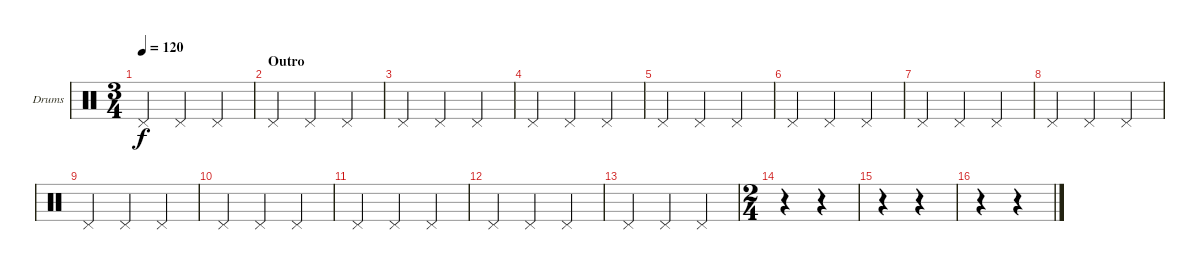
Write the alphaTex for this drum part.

\bracketExtendMode groupsimilarinstruments
\firstSystemTrackNameOrientation horizontal
\otherSystemsTrackNameOrientation horizontal
\track ("Drumkit" "Drums") {instrument percussion}
\staff {score}
\articulation defaults
\ts (3 4)
\tempo 120
\clef neutral
\ks c "Pedal Hi-Hat (hit)".4{dy f} "Pedal Hi-Hat (hit)".4 "Pedal Hi-Hat (hit)".4
|
\section ("" "Outro")
"Pedal Hi-Hat (hit)".4 "Pedal Hi-Hat (hit)".4 "Pedal Hi-Hat (hit)".4 |
"Pedal Hi-Hat (hit)".4 "Pedal Hi-Hat (hit)".4 "Pedal Hi-Hat (hit)".4 |
"Pedal Hi-Hat (hit)".4 "Pedal Hi-Hat (hit)".4 "Pedal Hi-Hat (hit)".4 |
"Pedal Hi-Hat (hit)".4 "Pedal Hi-Hat (hit)".4 "Pedal Hi-Hat (hit)".4 |
"Pedal Hi-Hat (hit)".4 "Pedal Hi-Hat (hit)".4 "Pedal Hi-Hat (hit)".4 |
"Pedal Hi-Hat (hit)".4 "Pedal Hi-Hat (hit)".4 "Pedal Hi-Hat (hit)".4 |
"Pedal Hi-Hat (hit)".4 "Pedal Hi-Hat (hit)".4 "Pedal Hi-Hat (hit)".4 |
"Pedal Hi-Hat (hit)".4 "Pedal Hi-Hat (hit)".4 "Pedal Hi-Hat (hit)".4 |
"Pedal Hi-Hat (hit)".4 "Pedal Hi-Hat (hit)".4 "Pedal Hi-Hat (hit)".4 |
"Pedal Hi-Hat (hit)".4 "Pedal Hi-Hat (hit)".4 "Pedal Hi-Hat (hit)".4 |
"Pedal Hi-Hat (hit)".4 "Pedal Hi-Hat (hit)".4 "Pedal Hi-Hat (hit)".4 |
"Pedal Hi-Hat (hit)".4 "Pedal Hi-Hat (hit)".4 "Pedal Hi-Hat (hit)".4 |
\ts (2 4)
\beaming (8 2 2)
r.4 r.4 |
r.4 r.4 |
r.4 r.4
